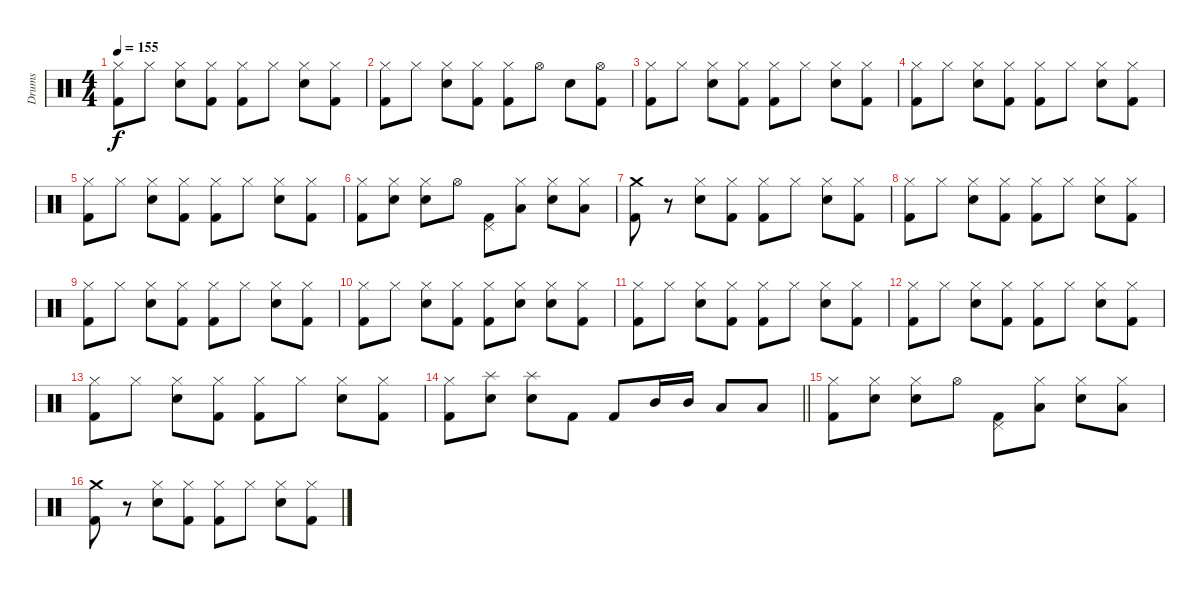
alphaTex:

\track ("Drums" "Drums") {instrument percussion}
\staff {score}
\articulation defaults
\ts (4 4)
\tempo 155
\clef neutral
\ks c
("Hi-Hat (closed)" "Kick (hit) 2").8{dy f} "Hi-Hat (closed)".8 ("Hi-Hat (closed)" "Snare (hit) 2").8 ("Hi-Hat (closed)" "Kick (hit) 2").8 ("Hi-Hat (closed)" "Kick (hit) 2").8 "Hi-Hat (closed)".8 ("Hi-Hat (closed)" "Snare (hit) 2").8 ("Hi-Hat (closed)" "Kick (hit) 2").8 |
("Hi-Hat (closed)" "Kick (hit) 2").8 "Hi-Hat (closed)".8 ("Hi-Hat (closed)" "Snare (hit) 2").8 ("Hi-Hat (closed)" "Kick (hit) 2").8 ("Hi-Hat (closed)" "Kick (hit) 2").8 "Hi-Hat (open)".8 "Snare (hit) 2".8 ("Hi-Hat (open)" "Kick (hit) 2").8 |
("Hi-Hat (closed)" "Kick (hit) 2").8 "Hi-Hat (closed)".8 ("Hi-Hat (closed)" "Snare (hit) 2").8 ("Hi-Hat (closed)" "Kick (hit) 2").8 ("Hi-Hat (closed)" "Kick (hit) 2").8 "Hi-Hat (closed)".8 ("Hi-Hat (closed)" "Snare (hit) 2").8 ("Hi-Hat (closed)" "Kick (hit) 2").8 |
("Hi-Hat (closed)" "Kick (hit) 2").8 "Hi-Hat (closed)".8 ("Hi-Hat (closed)" "Snare (hit) 2").8 ("Hi-Hat (closed)" "Kick (hit) 2").8 ("Hi-Hat (closed)" "Kick (hit) 2").8 "Hi-Hat (closed)".8 ("Hi-Hat (closed)" "Snare (hit) 2").8 ("Hi-Hat (closed)" "Kick (hit) 2").8 |
("Hi-Hat (closed)" "Kick (hit) 2").8 "Hi-Hat (closed)".8 ("Hi-Hat (closed)" "Snare (hit) 2").8 ("Hi-Hat (closed)" "Kick (hit) 2").8 ("Hi-Hat (closed)" "Kick (hit) 2").8 "Hi-Hat (closed)".8 ("Hi-Hat (closed)" "Snare (hit) 2").8 ("Hi-Hat (closed)" "Kick (hit) 2").8 |
("Hi-Hat (closed)" "Kick (hit) 2").8 ("Hi-Hat (closed)" "Snare (hit) 2").8 ("Hi-Hat (closed)" "Snare (hit) 2").8 "Hi-Hat (open)".8 ("Pedal Hi-Hat (hit)" "Kick (hit) 2").8 ("Hi-Hat (closed)" "Low Tom (hit)").8 ("Hi-Hat (closed)" "Snare (hit) 2").8 ("Hi-Hat (closed)" "Low Tom (hit)").8 |
("Crash medium (hit)" "Kick (hit) 2").8 r.8 ("Hi-Hat (closed)" "Snare (hit) 2").8 ("Hi-Hat (closed)" "Kick (hit) 2").8 ("Hi-Hat (closed)" "Kick (hit) 2").8 "Hi-Hat (closed)".8 ("Hi-Hat (closed)" "Snare (hit) 2").8 ("Hi-Hat (closed)" "Kick (hit) 2").8 |
("Hi-Hat (closed)" "Kick (hit) 2").8 "Hi-Hat (closed)".8 ("Hi-Hat (closed)" "Snare (hit) 2").8 ("Hi-Hat (closed)" "Kick (hit) 2").8 ("Hi-Hat (closed)" "Kick (hit) 2").8 "Hi-Hat (closed)".8 ("Hi-Hat (closed)" "Snare (hit) 2").8 ("Hi-Hat (closed)" "Kick (hit) 2").8 |
("Hi-Hat (closed)" "Kick (hit) 2").8 "Hi-Hat (closed)".8 ("Hi-Hat (closed)" "Snare (hit) 2").8 ("Hi-Hat (closed)" "Kick (hit) 2").8 ("Hi-Hat (closed)" "Kick (hit) 2").8 "Hi-Hat (closed)".8 ("Hi-Hat (closed)" "Snare (hit) 2").8 ("Hi-Hat (closed)" "Kick (hit) 2").8 |
("Hi-Hat (closed)" "Kick (hit) 2").8 "Hi-Hat (closed)".8 ("Hi-Hat (closed)" "Snare (hit) 2").8 ("Hi-Hat (closed)" "Kick (hit) 2").8 ("Hi-Hat (closed)" "Kick (hit) 2").8 ("Hi-Hat (closed)" "Hand Clap (hit)").8 ("Hi-Hat (closed)" "Snare (hit) 2").8 ("Hi-Hat (closed)" "Kick (hit) 2").8 |
("Hi-Hat (closed)" "Kick (hit) 2").8 "Hi-Hat (closed)".8 ("Hi-Hat (closed)" "Snare (hit) 2").8 ("Hi-Hat (closed)" "Kick (hit) 2").8 ("Hi-Hat (closed)" "Kick (hit) 2").8 "Hi-Hat (closed)".8 ("Hi-Hat (closed)" "Snare (hit) 2").8 ("Hi-Hat (closed)" "Kick (hit) 2").8 |
("Hi-Hat (closed)" "Kick (hit) 2").8 "Hi-Hat (closed)".8 ("Hi-Hat (closed)" "Snare (hit) 2").8 ("Hi-Hat (closed)" "Kick (hit) 2").8 ("Hi-Hat (closed)" "Kick (hit) 2").8 "Hi-Hat (closed)".8 ("Hi-Hat (closed)" "Snare (hit) 2").8 ("Hi-Hat (closed)" "Kick (hit) 2").8 |
("Hi-Hat (closed)" "Kick (hit) 2").8 "Hi-Hat (closed)".8 ("Hi-Hat (closed)" "Snare (hit) 2").8 ("Hi-Hat (closed)" "Kick (hit) 2").8 ("Hi-Hat (closed)" "Kick (hit) 2").8 "Hi-Hat (closed)".8 ("Hi-Hat (closed)" "Snare (hit) 2").8 ("Hi-Hat (closed)" "Kick (hit) 2").8 |
\barLineRight lightlight
("Hi-Hat (closed)" "Kick (hit) 2").8 ("Splash (hit)" "Snare (hit) 2").8 ("Splash (hit)" "Snare (hit) 2").8 "Kick (hit) 2".8 "Kick (hit) 2".8 "Mid Tom (hit)".16 "Mid Tom (hit)".16 "Low Tom (hit)".8 "Low Floor Tom (hit)".8 |
("Hi-Hat (closed)" "Kick (hit) 2").8 ("Hi-Hat (closed)" "Snare (hit) 2").8 ("Hi-Hat (closed)" "Snare (hit) 2").8 "Hi-Hat (open)".8 ("Pedal Hi-Hat (hit)" "Kick (hit) 2").8 ("Hi-Hat (closed)" "Low Tom (hit)").8 ("Hi-Hat (closed)" "Snare (hit) 2").8 ("Hi-Hat (closed)" "Low Tom (hit)").8 |
("Crash medium (hit)" "Kick (hit) 2").8 r.8 ("Hi-Hat (closed)" "Snare (hit) 2").8 ("Hi-Hat (closed)" "Kick (hit) 2").8 ("Hi-Hat (closed)" "Kick (hit) 2").8 "Hi-Hat (closed)".8 ("Hi-Hat (closed)" "Snare (hit) 2").8 ("Hi-Hat (closed)" "Kick (hit) 2").8
